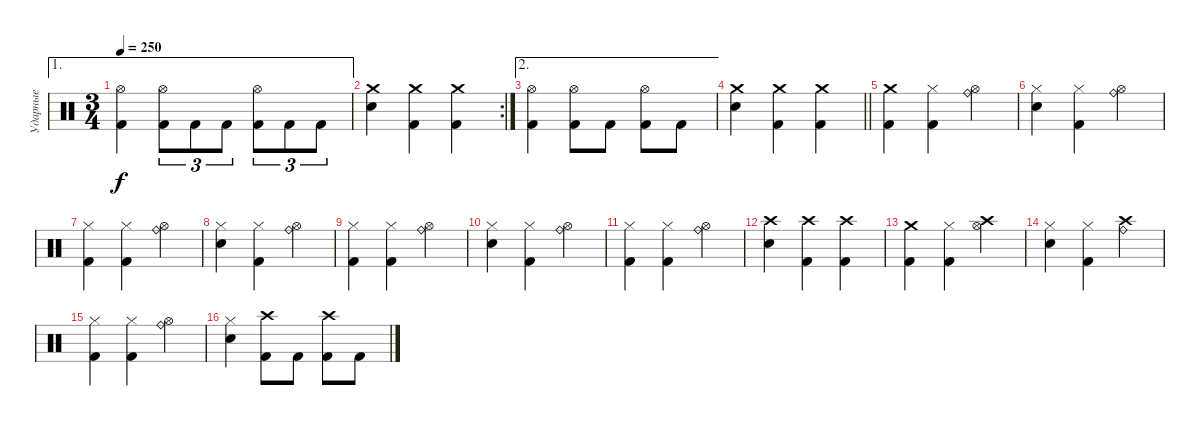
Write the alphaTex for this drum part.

\track ("Ударные" "Ударные") {instrument percussion}
\staff {score}
\articulation defaults
\ae 1
\ts (3 4)
\tempo 250
\clef neutral
\ks c
("Hi-Hat (open)" "Kick (hit) 2").4{dy f} ("Hi-Hat (open)" "Kick (hit) 2").8{tu (3 2)} "Kick (hit) 2".8{tu (3 2)} "Kick (hit) 2".8{tu (3 2)} ("Hi-Hat (open)" "Kick (hit) 2").8{tu (3 2)} "Kick (hit) 2".8{tu (3 2)} "Kick (hit) 2".8{tu (3 2)} |
\rc 2
("Crash medium (hit)" "Electric Snare (hit)").4 ("Crash medium (hit)" "Kick (hit) 2").4 ("Crash medium (hit)" "Kick (hit) 2").4 |
\ae 2
("Hi-Hat (open)" "Kick (hit) 2").4 ("Hi-Hat (open)" "Kick (hit) 2").8 "Kick (hit) 2".8 ("Hi-Hat (open)" "Kick (hit) 2").8 "Kick (hit) 2".8 |
\barLineRight lightlight
("Crash medium (hit)" "Electric Snare (hit)").4 ("Crash medium (hit)" "Kick (hit) 2").4 ("Crash medium (hit)" "Kick (hit) 2").4 |
("Crash medium (hit)" "Kick (hit) 2").4 ("Hi-Hat (closed)" "Kick (hit) 2").4 ("Ride (bell)" "Hi-Hat (open)").4 |
("Hi-Hat (closed)" "Electric Snare (hit)").4 ("Hi-Hat (closed)" "Kick (hit) 2").4 ("Hi-Hat (open)" "Ride (bell)").4 |
("Hi-Hat (closed)" "Kick (hit) 2").4 ("Hi-Hat (closed)" "Kick (hit) 2").4 ("Hi-Hat (open)" "Ride (bell)").4 |
("Hi-Hat (closed)" "Electric Snare (hit)").4 ("Hi-Hat (closed)" "Kick (hit) 2").4 ("Hi-Hat (open)" "Ride (bell)").4 |
("Hi-Hat (closed)" "Kick (hit) 2").4 ("Hi-Hat (closed)" "Kick (hit) 2").4 ("Hi-Hat (open)" "Ride (bell)").4 |
("Hi-Hat (closed)" "Electric Snare (hit)").4 ("Hi-Hat (closed)" "Kick (hit) 2").4 ("Hi-Hat (open)" "Ride (bell)").4 |
("Hi-Hat (closed)" "Kick (hit) 2").4 ("Hi-Hat (closed)" "Kick (hit) 2").4 ("Hi-Hat (open)" "Ride (bell)").4 |
("Crash high (hit)" "Electric Snare (hit)").4 ("Crash high (hit)" "Kick (hit) 2").4 ("Crash high (hit)" "Kick (hit) 2").4 |
("Crash medium (hit)" "Kick (hit) 2").4 ("Hi-Hat (closed)" "Kick (hit) 2").4 ("Crash high (hit)" "Hi-Hat (open)").4 |
("Hi-Hat (closed)" "Electric Snare (hit)").4 ("Hi-Hat (closed)" "Kick (hit) 2").4 ("Crash high (hit)" "Ride (bell)").4 |
("Hi-Hat (closed)" "Kick (hit) 2").4 ("Hi-Hat (closed)" "Kick (hit) 2").4 ("Hi-Hat (open)" "Ride (bell)").4 |
("Hi-Hat (closed)" "Electric Snare (hit)").4 ("Crash high (hit)" "Kick (hit) 2").8 "Kick (hit) 2".8 ("Crash high (hit)" "Kick (hit) 2").8 "Kick (hit) 2".8
